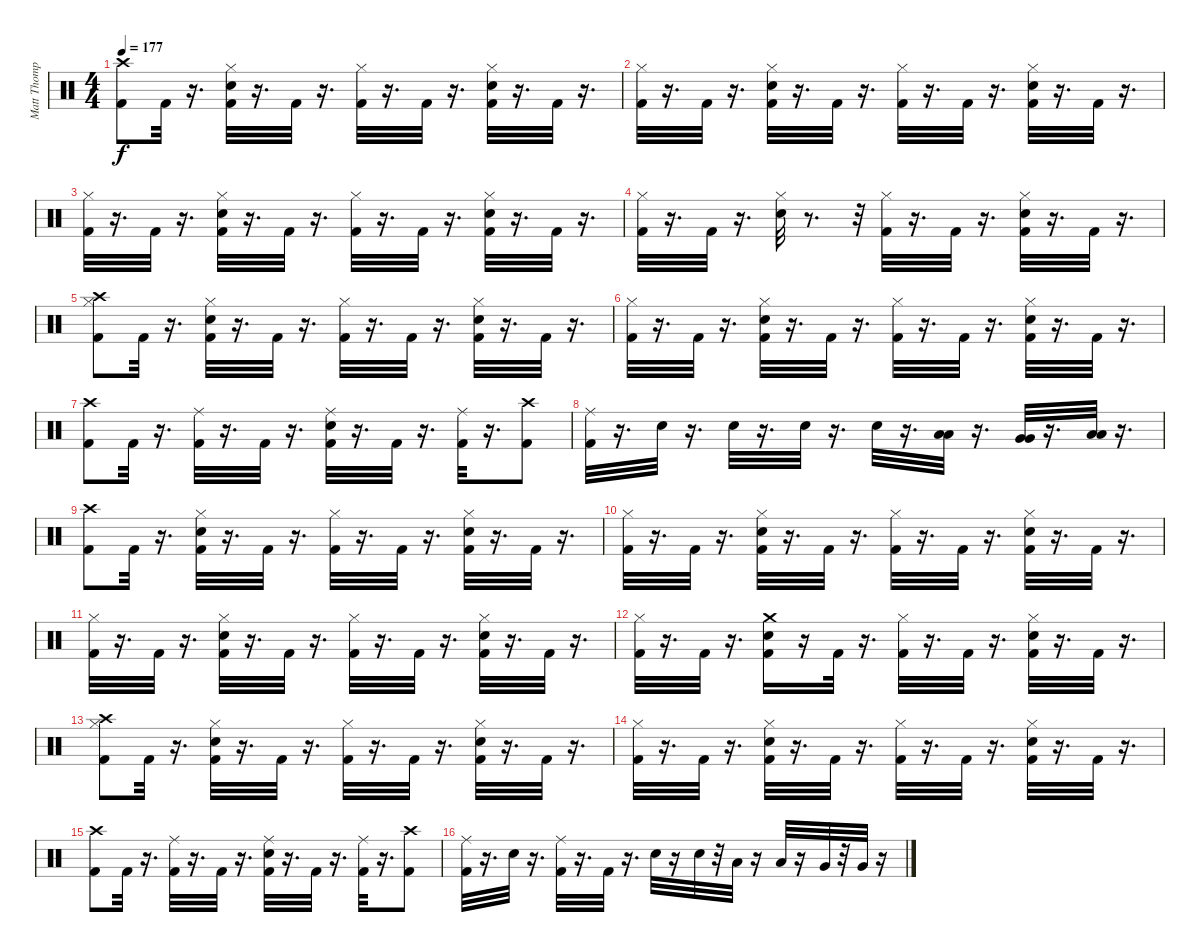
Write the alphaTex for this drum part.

\track ("Matt Thompson" "Matt Thomp") {instrument percussion}
\staff {score}
\articulation defaults
\ts (4 4)
\tempo 177
\clef neutral
\ks c
("Crash high (hit)" "Kick (hit) 2").8{dy f} "Kick (hit) 2".32 r.16{d} ("Snare (hit) 2" "Hi-Hat (closed)" "Kick (hit) 2").32 r.16{d} "Kick (hit) 2".32 r.16{d} ("Hi-Hat (closed)" "Kick (hit) 2").32 r.16{d} "Kick (hit) 2".32 r.16{d} ("Snare (hit) 2" "Hi-Hat (closed)" "Kick (hit) 2").32 r.16{d} "Kick (hit) 2".32 r.16{d} |
("Hi-Hat (closed)" "Kick (hit) 2").32 r.16{d} "Kick (hit) 2".32 r.16{d} ("Snare (hit) 2" "Hi-Hat (closed)" "Kick (hit) 2").32 r.16{d} "Kick (hit) 2".32 r.16{d} ("Hi-Hat (closed)" "Kick (hit) 2").32 r.16{d} "Kick (hit) 2".32 r.16{d} ("Snare (hit) 2" "Hi-Hat (closed)" "Kick (hit) 2").32 r.16{d} "Kick (hit) 2".32 r.16{d} |
("Hi-Hat (closed)" "Kick (hit) 2").32 r.16{d} "Kick (hit) 2".32 r.16{d} ("Snare (hit) 2" "Hi-Hat (closed)" "Kick (hit) 2").32 r.16{d} "Kick (hit) 2".32 r.16{d} ("Hi-Hat (closed)" "Kick (hit) 2").32 r.16{d} "Kick (hit) 2".32 r.16{d} ("Snare (hit) 2" "Hi-Hat (closed)" "Kick (hit) 2").32 r.16{d} "Kick (hit) 2".32 r.16{d} |
("Hi-Hat (closed)" "Kick (hit) 2").32 r.16{d} "Kick (hit) 2".32 r.16{d} ("Hi-Hat (closed)" "Snare (hit) 2").32 r.8{d} r.32 ("Hi-Hat (closed)" "Kick (hit) 2").32 r.16{d} "Kick (hit) 2".32 r.16{d} ("Hi-Hat (closed)" "Snare (hit) 2" "Kick (hit) 2").32 r.16{d} "Kick (hit) 2".32 r.16{d} |
("Hi-Hat (closed)" "Crash high (hit)" "Kick (hit) 2").8 "Kick (hit) 2".32 r.16{d} ("Snare (hit) 2" "Hi-Hat (closed)" "Kick (hit) 2").32 r.16{d} "Kick (hit) 2".32 r.16{d} ("Hi-Hat (closed)" "Kick (hit) 2").32 r.16{d} "Kick (hit) 2".32 r.16{d} ("Snare (hit) 2" "Hi-Hat (closed)" "Kick (hit) 2").32 r.16{d} "Kick (hit) 2".32 r.16{d} |
("Hi-Hat (closed)" "Kick (hit) 2").32 r.16{d} "Kick (hit) 2".32 r.16{d} ("Snare (hit) 2" "Hi-Hat (closed)" "Kick (hit) 2").32 r.16{d} "Kick (hit) 2".32 r.16{d} ("Hi-Hat (closed)" "Kick (hit) 2").32 r.16{d} "Kick (hit) 2".32 r.16{d} ("Snare (hit) 2" "Hi-Hat (closed)" "Kick (hit) 2").32 r.16{d} "Kick (hit) 2".32 r.16{d} |
("Crash high (hit)" "Kick (hit) 2").8 "Kick (hit) 2".32 r.16{d} ("Ride (middle)" "Kick (hit) 2").32 r.16{d} "Kick (hit) 2".32 r.16{d} ("Ride (middle)" "Snare (hit) 2" "Kick (hit) 2").32 r.16{d} "Kick (hit) 2".32 r.16{d} ("Ride (middle)" "Kick (hit) 2").32 r.16{d} ("Crash high (hit)" "Kick (hit) 2").8 |
("Ride (middle)" "Kick (hit) 2").32 r.16{d} "Snare (hit) 2".32 r.16{d} "Snare (hit) 2".32 r.16{d} "Snare (hit) 2".32 r.16{d} "Snare (hit) 2".32 r.16{d} ("Low Tom (hit)" "Low Tom (hit)").32 r.16{d} ("Very Low Tom (hit)" "Very Low Tom (hit)").32 r.16{d} ("Low Floor Tom (hit)" "Low Floor Tom (hit)").32 r.16{d} |
("Crash high (hit)" "Kick (hit) 2").8 "Kick (hit) 2".32 r.16{d} ("Snare (hit) 2" "Hi-Hat (closed)" "Kick (hit) 2").32 r.16{d} "Kick (hit) 2".32 r.16{d} ("Hi-Hat (closed)" "Kick (hit) 2").32 r.16{d} "Kick (hit) 2".32 r.16{d} ("Snare (hit) 2" "Hi-Hat (closed)" "Kick (hit) 2").32 r.16{d} "Kick (hit) 2".32 r.16{d} |
("Hi-Hat (closed)" "Kick (hit) 2").32 r.16{d} "Kick (hit) 2".32 r.16{d} ("Snare (hit) 2" "Hi-Hat (closed)" "Kick (hit) 2").32 r.16{d} "Kick (hit) 2".32 r.16{d} ("Hi-Hat (closed)" "Kick (hit) 2").32 r.16{d} "Kick (hit) 2".32 r.16{d} ("Snare (hit) 2" "Hi-Hat (closed)" "Kick (hit) 2").32 r.16{d} "Kick (hit) 2".32 r.16{d} |
("Hi-Hat (closed)" "Kick (hit) 2").32 r.16{d} "Kick (hit) 2".32 r.16{d} ("Snare (hit) 2" "Hi-Hat (closed)" "Kick (hit) 2").32 r.16{d} "Kick (hit) 2".32 r.16{d} ("Hi-Hat (closed)" "Kick (hit) 2").32 r.16{d} "Kick (hit) 2".32 r.16{d} ("Snare (hit) 2" "Hi-Hat (closed)" "Kick (hit) 2").32 r.16{d} "Kick (hit) 2".32 r.16{d} |
("Hi-Hat (closed)" "Kick (hit) 2").32 r.16{d} "Kick (hit) 2".32 r.16{d} ("Crash medium (hit)" "Kick (hit) 2" "Snare (hit) 2").16 r.16 "Kick (hit) 2".32 r.16{d} ("Hi-Hat (closed)" "Kick (hit) 2").32 r.16{d} "Kick (hit) 2".32 r.16{d} ("Hi-Hat (closed)" "Snare (hit) 2" "Kick (hit) 2").32 r.16{d} "Kick (hit) 2".32 r.16{d} |
("Hi-Hat (closed)" "Crash high (hit)" "Kick (hit) 2").8 "Kick (hit) 2".32 r.16{d} ("Snare (hit) 2" "Hi-Hat (closed)" "Kick (hit) 2").32 r.16{d} "Kick (hit) 2".32 r.16{d} ("Hi-Hat (closed)" "Kick (hit) 2").32 r.16{d} "Kick (hit) 2".32 r.16{d} ("Snare (hit) 2" "Hi-Hat (closed)" "Kick (hit) 2").32 r.16{d} "Kick (hit) 2".32 r.16{d} |
("Hi-Hat (closed)" "Kick (hit) 2").32 r.16{d} "Kick (hit) 2".32 r.16{d} ("Snare (hit) 2" "Hi-Hat (closed)" "Kick (hit) 2").32 r.16{d} "Kick (hit) 2".32 r.16{d} ("Hi-Hat (closed)" "Kick (hit) 2").32 r.16{d} "Kick (hit) 2".32 r.16{d} ("Snare (hit) 2" "Hi-Hat (closed)" "Kick (hit) 2").32 r.16{d} "Kick (hit) 2".32 r.16{d} |
("Crash high (hit)" "Kick (hit) 2").8 "Kick (hit) 2".32 r.16{d} ("Ride (middle)" "Kick (hit) 2").32 r.16{d} "Kick (hit) 2".32 r.16{d} ("Ride (middle)" "Snare (hit) 2" "Kick (hit) 2").32 r.16{d} "Kick (hit) 2".32 r.16{d} ("Ride (middle)" "Kick (hit) 2").32 r.16{d} ("Crash high (hit)" "Kick (hit) 2").8 |
("Ride (middle)" "Kick (hit) 2").32 r.16{d} "Snare (hit) 2".32 r.16{d} ("Ride (middle)" "Kick (hit) 2").32 r.16{d} "Kick (hit) 2".32 r.16{d} "Snare (hit) 2".32 r.16 "Snare (hit) 2".32 r.32 "Low Tom (hit)".32 r.16 "Low Tom (hit)".32 r.16 "Very Low Tom (hit)".32 r.32 "Very Low Tom (hit)".32 r.16
